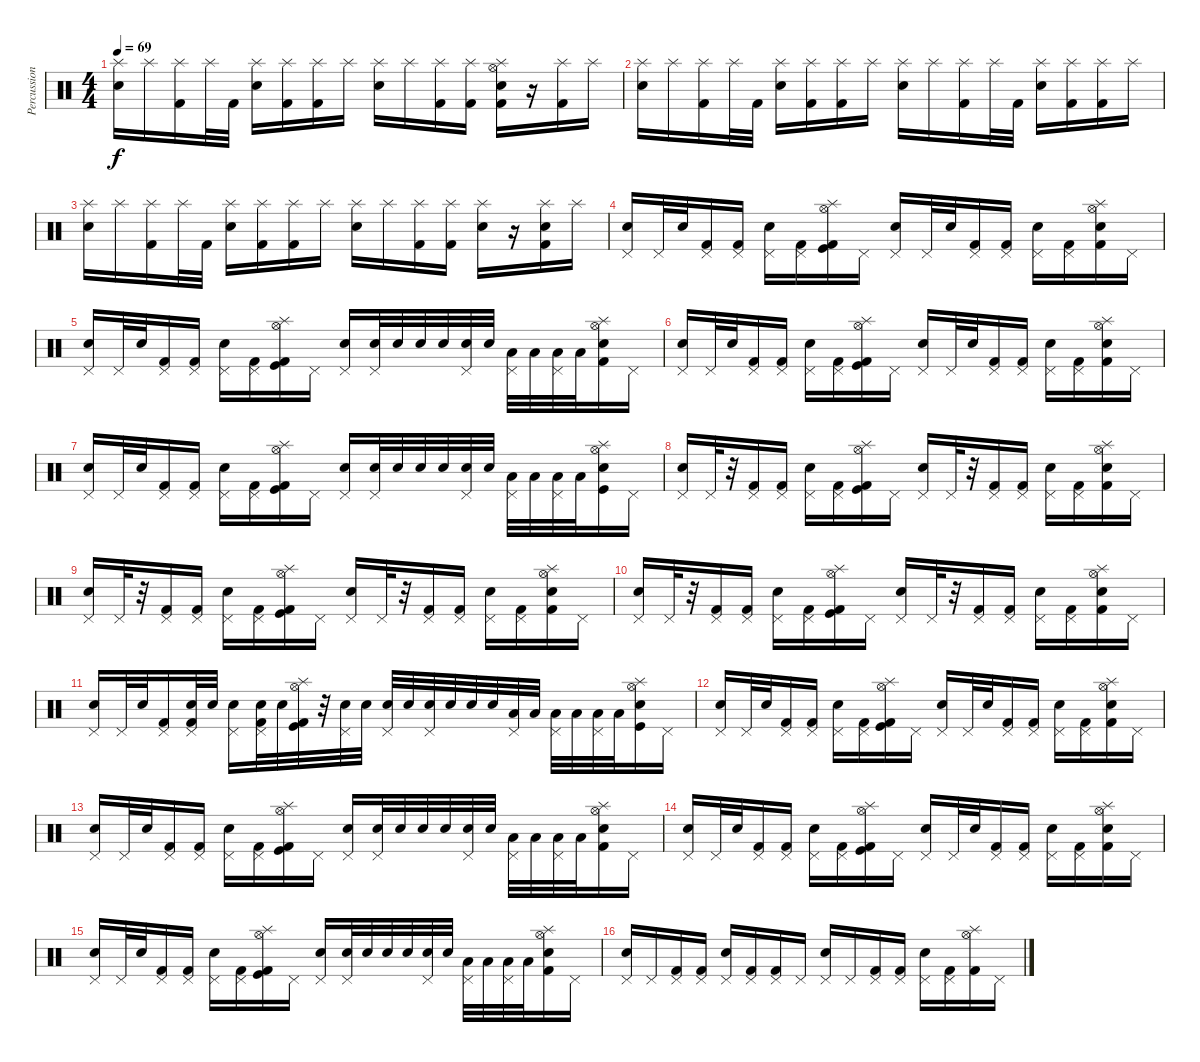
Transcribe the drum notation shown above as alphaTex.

\track ("Percussion" "Percussion") {instrument percussion}
\staff {score}
\articulation defaults
\ts (4 4)
\tempo 69
\clef neutral
\ks c
("Splash (hit)" "Snare (hit) 2").16{dy f} "Splash (hit)".16 ("Splash (hit)" "Kick (hit) 2").16 "Splash (hit)".32 "Kick (hit) 2".32 ("Splash (hit)" "Snare (hit) 2").16 ("Splash (hit)" "Kick (hit) 2").16 ("Splash (hit)" "Kick (hit) 2").16 "Splash (hit)".16 ("Splash (hit)" "Snare (hit) 2").16 "Splash (hit)".16 ("Splash (hit)" "Kick (hit) 2").16 ("Splash (hit)" "Kick (hit) 2").16 ("Splash (hit)" "Hi-Hat (open)" "Snare (hit) 2" "Kick (hit) 2").16 r.16 ("Splash (hit)" "Kick (hit) 2").16 "Splash (hit)".16 |
("Splash (hit)" "Snare (hit) 2").16 "Splash (hit)".16 ("Splash (hit)" "Kick (hit) 2").16 "Splash (hit)".32 "Kick (hit) 2".32 ("Splash (hit)" "Snare (hit) 2").16 ("Splash (hit)" "Kick (hit) 2").16 ("Splash (hit)" "Kick (hit) 2").16 "Splash (hit)".16 ("Splash (hit)" "Snare (hit) 2").16 "Splash (hit)".16 ("Splash (hit)" "Kick (hit) 2").16 "Splash (hit)".32 "Kick (hit) 2".32 ("Splash (hit)" "Snare (hit) 2").16 ("Splash (hit)" "Kick (hit) 2").16 ("Splash (hit)" "Kick (hit) 2").16 "Splash (hit)".16 |
("Splash (hit)" "Snare (hit) 2").16 "Splash (hit)".16 ("Splash (hit)" "Kick (hit) 2").16 "Splash (hit)".32 "Kick (hit) 2".32 ("Splash (hit)" "Snare (hit) 2").16 ("Splash (hit)" "Kick (hit) 2").16 ("Splash (hit)" "Kick (hit) 2").16 "Splash (hit)".16 ("Splash (hit)" "Snare (hit) 2").16 "Splash (hit)".16 ("Splash (hit)" "Kick (hit) 2").16 ("Splash (hit)" "Kick (hit) 2").16 ("Splash (hit)" "Snare (hit) 2").16 r.16 ("Splash (hit)" "Snare (hit) 2" "Kick (hit) 2").16 "Splash (hit)".16 |
("Pedal Hi-Hat (hit)" "Snare (hit) 2").16 "Pedal Hi-Hat (hit)".32 "Snare (hit) 2".32 ("Pedal Hi-Hat (hit)" "Kick (hit) 2").16 ("Pedal Hi-Hat (hit)" "Kick (hit) 2").16 ("Pedal Hi-Hat (hit)" "Snare (hit) 2").16 ("Pedal Hi-Hat (hit)" "Kick (hit) 2").16 ("Splash (hit)" "Hi-Hat (open)" "Kick (hit)" "Kick (hit) 2").16 "Pedal Hi-Hat (hit)".16 ("Pedal Hi-Hat (hit)" "Snare (hit) 2").16 "Pedal Hi-Hat (hit)".32 "Snare (hit) 2".32 ("Pedal Hi-Hat (hit)" "Kick (hit) 2").16 ("Pedal Hi-Hat (hit)" "Kick (hit) 2").16 ("Pedal Hi-Hat (hit)" "Snare (hit) 2").16 ("Pedal Hi-Hat (hit)" "Kick (hit) 2").16 ("Splash (hit)" "Hi-Hat (open)" "Snare (hit) 2" "Kick (hit) 2").16 "Pedal Hi-Hat (hit)".16 |
("Pedal Hi-Hat (hit)" "Snare (hit) 2").16 "Pedal Hi-Hat (hit)".32 "Snare (hit) 2".32 ("Pedal Hi-Hat (hit)" "Kick (hit) 2").16 ("Pedal Hi-Hat (hit)" "Kick (hit) 2").16 ("Pedal Hi-Hat (hit)" "Snare (hit) 2").16 ("Pedal Hi-Hat (hit)" "Kick (hit) 2").16 ("Splash (hit)" "Hi-Hat (open)" "Kick (hit)" "Kick (hit) 2").16 "Pedal Hi-Hat (hit)".16 ("Pedal Hi-Hat (hit)" "Snare (hit) 2").16 ("Pedal Hi-Hat (hit)" "Snare (hit) 2").32 "Snare (hit) 2".32 "Snare (hit) 2".32 "Snare (hit) 2".32 ("Pedal Hi-Hat (hit)" "Snare (hit) 2").32 "Snare (hit) 2".32 ("Pedal Hi-Hat (hit)" "Low Floor Tom (hit)").32 "Low Floor Tom (hit)".32 ("Pedal Hi-Hat (hit)" "Low Floor Tom (hit)").32 "Low Floor Tom (hit)".32 ("Splash (hit)" "Hi-Hat (open)" "Snare (hit) 2" "Kick (hit) 2").16 "Pedal Hi-Hat (hit)".16 |
("Pedal Hi-Hat (hit)" "Snare (hit) 2").16 "Pedal Hi-Hat (hit)".32 "Snare (hit) 2".32 ("Pedal Hi-Hat (hit)" "Kick (hit) 2").16 ("Pedal Hi-Hat (hit)" "Kick (hit) 2").16 ("Pedal Hi-Hat (hit)" "Snare (hit) 2").16 ("Pedal Hi-Hat (hit)" "Kick (hit) 2").16 ("Splash (hit)" "Hi-Hat (open)" "Kick (hit)" "Kick (hit) 2").16 "Pedal Hi-Hat (hit)".16 ("Pedal Hi-Hat (hit)" "Snare (hit) 2").16 "Pedal Hi-Hat (hit)".32 "Snare (hit) 2".32 ("Pedal Hi-Hat (hit)" "Kick (hit) 2").16 ("Pedal Hi-Hat (hit)" "Kick (hit) 2").16 ("Pedal Hi-Hat (hit)" "Snare (hit) 2").16 ("Pedal Hi-Hat (hit)" "Kick (hit) 2").16 ("Splash (hit)" "Hi-Hat (open)" "Snare (hit) 2" "Kick (hit) 2").16 "Pedal Hi-Hat (hit)".16 |
("Pedal Hi-Hat (hit)" "Snare (hit) 2").16 "Pedal Hi-Hat (hit)".32 "Snare (hit) 2".32 ("Pedal Hi-Hat (hit)" "Kick (hit) 2").16 ("Pedal Hi-Hat (hit)" "Kick (hit) 2").16 ("Pedal Hi-Hat (hit)" "Snare (hit) 2").16 ("Pedal Hi-Hat (hit)" "Kick (hit) 2").16 ("Splash (hit)" "Hi-Hat (open)" "Kick (hit)" "Kick (hit) 2").16 "Pedal Hi-Hat (hit)".16 ("Pedal Hi-Hat (hit)" "Snare (hit) 2").16 ("Pedal Hi-Hat (hit)" "Snare (hit) 2").32 "Snare (hit) 2".32 "Snare (hit) 2".32 "Snare (hit) 2".32 ("Pedal Hi-Hat (hit)" "Snare (hit) 2").32 "Snare (hit) 2".32 ("Pedal Hi-Hat (hit)" "Low Floor Tom (hit)").32 "Low Floor Tom (hit)".32 ("Pedal Hi-Hat (hit)" "Low Floor Tom (hit)").32 "Low Floor Tom (hit)".32 ("Splash (hit)" "Hi-Hat (open)" "Snare (hit) 2" "Kick (hit)").16 "Pedal Hi-Hat (hit)".16 |
("Pedal Hi-Hat (hit)" "Snare (hit) 2").16 "Pedal Hi-Hat (hit)".32 r.32 ("Pedal Hi-Hat (hit)" "Kick (hit) 2").16 ("Pedal Hi-Hat (hit)" "Kick (hit) 2").16 ("Pedal Hi-Hat (hit)" "Snare (hit) 2").16 ("Pedal Hi-Hat (hit)" "Kick (hit) 2").16 ("Splash (hit)" "Hi-Hat (open)" "Kick (hit)" "Kick (hit) 2").16 "Pedal Hi-Hat (hit)".16 ("Pedal Hi-Hat (hit)" "Snare (hit) 2").16 "Pedal Hi-Hat (hit)".32 r.32 ("Pedal Hi-Hat (hit)" "Kick (hit) 2").16 ("Pedal Hi-Hat (hit)" "Kick (hit) 2").16 ("Pedal Hi-Hat (hit)" "Snare (hit) 2").16 ("Pedal Hi-Hat (hit)" "Kick (hit) 2").16 ("Splash (hit)" "Hi-Hat (open)" "Snare (hit) 2" "Kick (hit) 2").16 "Pedal Hi-Hat (hit)".16 |
("Pedal Hi-Hat (hit)" "Snare (hit) 2").16 "Pedal Hi-Hat (hit)".32 r.32 ("Pedal Hi-Hat (hit)" "Kick (hit) 2").16 ("Pedal Hi-Hat (hit)" "Kick (hit) 2").16 ("Pedal Hi-Hat (hit)" "Snare (hit) 2").16 ("Pedal Hi-Hat (hit)" "Kick (hit) 2").16 ("Splash (hit)" "Hi-Hat (open)" "Kick (hit)" "Kick (hit) 2").16 "Pedal Hi-Hat (hit)".16 ("Pedal Hi-Hat (hit)" "Snare (hit) 2").16 "Pedal Hi-Hat (hit)".32 r.32 ("Pedal Hi-Hat (hit)" "Kick (hit) 2").16 ("Pedal Hi-Hat (hit)" "Kick (hit) 2").16 ("Pedal Hi-Hat (hit)" "Snare (hit) 2").16 ("Pedal Hi-Hat (hit)" "Kick (hit) 2").16 ("Splash (hit)" "Hi-Hat (open)" "Snare (hit) 2" "Kick (hit) 2").16 "Pedal Hi-Hat (hit)".16 |
("Pedal Hi-Hat (hit)" "Snare (hit) 2").16 "Pedal Hi-Hat (hit)".32 r.32 ("Pedal Hi-Hat (hit)" "Kick (hit) 2").16 ("Pedal Hi-Hat (hit)" "Kick (hit) 2").16 ("Pedal Hi-Hat (hit)" "Snare (hit) 2").16 ("Pedal Hi-Hat (hit)" "Kick (hit) 2").16 ("Splash (hit)" "Hi-Hat (open)" "Kick (hit)" "Kick (hit) 2").16 "Pedal Hi-Hat (hit)".16 ("Pedal Hi-Hat (hit)" "Snare (hit) 2").16 "Pedal Hi-Hat (hit)".32 r.32 ("Pedal Hi-Hat (hit)" "Kick (hit) 2").16 ("Pedal Hi-Hat (hit)" "Kick (hit) 2").16 ("Pedal Hi-Hat (hit)" "Snare (hit) 2").16 ("Pedal Hi-Hat (hit)" "Kick (hit) 2").16 ("Splash (hit)" "Hi-Hat (open)" "Snare (hit) 2" "Kick (hit) 2").16 "Pedal Hi-Hat (hit)".16 |
("Pedal Hi-Hat (hit)" "Snare (hit) 2").16 "Pedal Hi-Hat (hit)".32 "Snare (hit) 2".32 ("Pedal Hi-Hat (hit)" "Kick (hit) 2").16 ("Pedal Hi-Hat (hit)" "Snare (hit) 2" "Kick (hit) 2").32 "Snare (hit) 2".32 ("Pedal Hi-Hat (hit)" "Snare (hit) 2").16 ("Pedal Hi-Hat (hit)" "Snare (hit) 2" "Kick (hit) 2").32 "Snare (hit) 2".32 ("Splash (hit)" "Hi-Hat (open)" "Kick (hit)" "Kick (hit) 2").32 r.32 ("Pedal Hi-Hat (hit)" "Snare (hit) 2").32 "Snare (hit) 2".32 ("Pedal Hi-Hat (hit)" "Snare (hit) 2").32 "Snare (hit) 2".32 ("Pedal Hi-Hat (hit)" "Snare (hit) 2").32 "Snare (hit) 2".32 "Snare (hit) 2".32 "Snare (hit) 2".32 ("Pedal Hi-Hat (hit)" "Low Floor Tom (hit)").32 "Low Floor Tom (hit)".32 ("Pedal Hi-Hat (hit)" "Low Floor Tom (hit)").32 "Low Floor Tom (hit)".32 ("Pedal Hi-Hat (hit)" "Low Floor Tom (hit)").32 "Low Floor Tom (hit)".32 ("Splash (hit)" "Hi-Hat (open)" "Snare (hit) 2" "Kick (hit)").16 "Pedal Hi-Hat (hit)".16 |
("Pedal Hi-Hat (hit)" "Snare (hit) 2").16 "Pedal Hi-Hat (hit)".32 "Snare (hit) 2".32 ("Pedal Hi-Hat (hit)" "Kick (hit) 2").16 ("Pedal Hi-Hat (hit)" "Kick (hit) 2").16 ("Pedal Hi-Hat (hit)" "Snare (hit) 2").16 ("Pedal Hi-Hat (hit)" "Kick (hit) 2").16 ("Splash (hit)" "Hi-Hat (open)" "Kick (hit)" "Kick (hit) 2").16 "Pedal Hi-Hat (hit)".16 ("Pedal Hi-Hat (hit)" "Snare (hit) 2").16 "Pedal Hi-Hat (hit)".32 "Snare (hit) 2".32 ("Pedal Hi-Hat (hit)" "Kick (hit) 2").16 ("Pedal Hi-Hat (hit)" "Kick (hit) 2").16 ("Pedal Hi-Hat (hit)" "Snare (hit) 2").16 ("Pedal Hi-Hat (hit)" "Kick (hit) 2").16 ("Splash (hit)" "Hi-Hat (open)" "Snare (hit) 2" "Kick (hit) 2").16 "Pedal Hi-Hat (hit)".16 |
("Pedal Hi-Hat (hit)" "Snare (hit) 2").16 "Pedal Hi-Hat (hit)".32 "Snare (hit) 2".32 ("Pedal Hi-Hat (hit)" "Kick (hit) 2").16 ("Pedal Hi-Hat (hit)" "Kick (hit) 2").16 ("Pedal Hi-Hat (hit)" "Snare (hit) 2").16 ("Pedal Hi-Hat (hit)" "Kick (hit) 2").16 ("Splash (hit)" "Hi-Hat (open)" "Kick (hit)" "Kick (hit) 2").16 "Pedal Hi-Hat (hit)".16 ("Pedal Hi-Hat (hit)" "Snare (hit) 2").16 ("Pedal Hi-Hat (hit)" "Snare (hit) 2").32 "Snare (hit) 2".32 "Snare (hit) 2".32 "Snare (hit) 2".32 ("Pedal Hi-Hat (hit)" "Snare (hit) 2").32 "Snare (hit) 2".32 ("Pedal Hi-Hat (hit)" "Low Floor Tom (hit)").32 "Low Floor Tom (hit)".32 ("Pedal Hi-Hat (hit)" "Low Floor Tom (hit)").32 "Low Floor Tom (hit)".32 ("Splash (hit)" "Hi-Hat (open)" "Snare (hit) 2" "Kick (hit) 2").16 "Pedal Hi-Hat (hit)".16 |
("Pedal Hi-Hat (hit)" "Snare (hit) 2").16 "Pedal Hi-Hat (hit)".32 "Snare (hit) 2".32 ("Pedal Hi-Hat (hit)" "Kick (hit) 2").16 ("Pedal Hi-Hat (hit)" "Kick (hit) 2").16 ("Pedal Hi-Hat (hit)" "Snare (hit) 2").16 ("Pedal Hi-Hat (hit)" "Kick (hit) 2").16 ("Splash (hit)" "Hi-Hat (open)" "Kick (hit)" "Kick (hit) 2").16 "Pedal Hi-Hat (hit)".16 ("Pedal Hi-Hat (hit)" "Snare (hit) 2").16 "Pedal Hi-Hat (hit)".32 "Snare (hit) 2".32 ("Pedal Hi-Hat (hit)" "Kick (hit) 2").16 ("Pedal Hi-Hat (hit)" "Kick (hit) 2").16 ("Pedal Hi-Hat (hit)" "Snare (hit) 2").16 ("Pedal Hi-Hat (hit)" "Kick (hit) 2").16 ("Splash (hit)" "Hi-Hat (open)" "Snare (hit) 2" "Kick (hit) 2").16 "Pedal Hi-Hat (hit)".16 |
("Pedal Hi-Hat (hit)" "Snare (hit) 2").16 "Pedal Hi-Hat (hit)".32 "Snare (hit) 2".32 ("Pedal Hi-Hat (hit)" "Kick (hit) 2").16 ("Pedal Hi-Hat (hit)" "Kick (hit) 2").16 ("Pedal Hi-Hat (hit)" "Snare (hit) 2").16 ("Pedal Hi-Hat (hit)" "Kick (hit) 2").16 ("Splash (hit)" "Hi-Hat (open)" "Kick (hit)" "Kick (hit) 2").16 "Pedal Hi-Hat (hit)".16 ("Pedal Hi-Hat (hit)" "Snare (hit) 2").16 ("Pedal Hi-Hat (hit)" "Snare (hit) 2").32 "Snare (hit) 2".32 "Snare (hit) 2".32 "Snare (hit) 2".32 ("Pedal Hi-Hat (hit)" "Snare (hit) 2").32 "Snare (hit) 2".32 ("Pedal Hi-Hat (hit)" "Low Floor Tom (hit)").32 "Low Floor Tom (hit)".32 ("Pedal Hi-Hat (hit)" "Low Floor Tom (hit)").32 "Low Floor Tom (hit)".32 ("Splash (hit)" "Hi-Hat (open)" "Snare (hit) 2" "Kick (hit) 2").16 "Pedal Hi-Hat (hit)".16 |
("Pedal Hi-Hat (hit)" "Snare (hit) 2").16 "Pedal Hi-Hat (hit)".16 ("Pedal Hi-Hat (hit)" "Kick (hit) 2").16 ("Pedal Hi-Hat (hit)" "Kick (hit) 2").16 ("Pedal Hi-Hat (hit)" "Snare (hit) 2").16 ("Pedal Hi-Hat (hit)" "Kick (hit) 2").16 ("Pedal Hi-Hat (hit)" "Kick (hit) 2").16 "Pedal Hi-Hat (hit)".16 ("Pedal Hi-Hat (hit)" "Snare (hit) 2").16 "Pedal Hi-Hat (hit)".16 ("Pedal Hi-Hat (hit)" "Kick (hit) 2").16 ("Pedal Hi-Hat (hit)" "Kick (hit) 2").16 ("Pedal Hi-Hat (hit)" "Snare (hit) 2").16 ("Pedal Hi-Hat (hit)" "Kick (hit) 2").16 ("Splash (hit)" "Hi-Hat (open)" "Kick (hit) 2").16 "Pedal Hi-Hat (hit)".16
